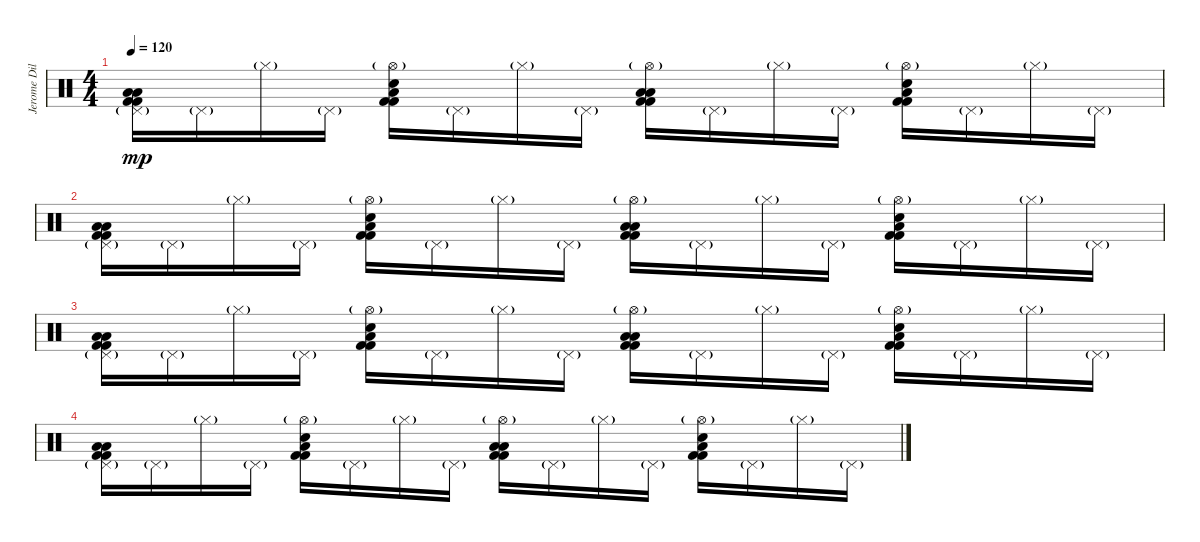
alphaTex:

\track ("Jerome Dillon" "Jerome Dil") {instrument percussion}
\staff {score}
\articulation defaults
\ts (4 4)
\tempo 120
\clef neutral
\ks c
("Pedal Hi-Hat (hit)"{g} "Low Floor Tom (hit)" "Low Tom (hit)" "Kick (hit) 2" "Kick (hit) 2").16{dy mp} "Pedal Hi-Hat (hit)"{g}.16 "Hi-Hat (closed)"{g}.16 "Pedal Hi-Hat (hit)"{g}.16 ("Hi-Hat (open)"{g} "Snare (hit) 2" "Low Tom (hit)" "Kick (hit) 2" "Kick (hit) 2").16 "Pedal Hi-Hat (hit)"{g}.16 "Hi-Hat (closed)"{g}.16 "Pedal Hi-Hat (hit)"{g}.16 ("Hi-Hat (open)"{g} "Low Floor Tom (hit)" "Low Tom (hit)" "Kick (hit) 2" "Kick (hit) 2").16 "Pedal Hi-Hat (hit)"{g}.16 "Hi-Hat (closed)"{g}.16 "Pedal Hi-Hat (hit)"{g}.16 ("Hi-Hat (open)"{g} "Snare (hit) 2" "Low Tom (hit)" "Kick (hit) 2" "Kick (hit) 2").16 "Pedal Hi-Hat (hit)"{g}.16 "Hi-Hat (closed)"{g}.16 "Pedal Hi-Hat (hit)"{g}.16 |
("Pedal Hi-Hat (hit)"{g} "Low Floor Tom (hit)" "Low Tom (hit)" "Kick (hit) 2" "Kick (hit) 2").16 "Pedal Hi-Hat (hit)"{g}.16 "Hi-Hat (closed)"{g}.16 "Pedal Hi-Hat (hit)"{g}.16 ("Hi-Hat (open)"{g} "Snare (hit) 2" "Low Tom (hit)" "Kick (hit) 2" "Kick (hit) 2").16 "Pedal Hi-Hat (hit)"{g}.16 "Hi-Hat (closed)"{g}.16 "Pedal Hi-Hat (hit)"{g}.16 ("Hi-Hat (open)"{g} "Low Floor Tom (hit)" "Low Tom (hit)" "Kick (hit) 2" "Kick (hit) 2").16 "Pedal Hi-Hat (hit)"{g}.16 "Hi-Hat (closed)"{g}.16 "Pedal Hi-Hat (hit)"{g}.16 ("Hi-Hat (open)"{g} "Snare (hit) 2" "Low Tom (hit)" "Kick (hit) 2" "Kick (hit) 2").16 "Pedal Hi-Hat (hit)"{g}.16 "Hi-Hat (closed)"{g}.16 "Pedal Hi-Hat (hit)"{g}.16 |
("Pedal Hi-Hat (hit)"{g} "Low Floor Tom (hit)" "Low Tom (hit)" "Kick (hit) 2" "Kick (hit) 2").16 "Pedal Hi-Hat (hit)"{g}.16 "Hi-Hat (closed)"{g}.16 "Pedal Hi-Hat (hit)"{g}.16 ("Hi-Hat (open)"{g} "Snare (hit) 2" "Low Tom (hit)" "Kick (hit) 2" "Kick (hit) 2").16 "Pedal Hi-Hat (hit)"{g}.16 "Hi-Hat (closed)"{g}.16 "Pedal Hi-Hat (hit)"{g}.16 ("Hi-Hat (open)"{g} "Low Floor Tom (hit)" "Low Tom (hit)" "Kick (hit) 2" "Kick (hit) 2").16 "Pedal Hi-Hat (hit)"{g}.16 "Hi-Hat (closed)"{g}.16 "Pedal Hi-Hat (hit)"{g}.16 ("Hi-Hat (open)"{g} "Snare (hit) 2" "Low Tom (hit)" "Kick (hit) 2" "Kick (hit) 2").16 "Pedal Hi-Hat (hit)"{g}.16 "Hi-Hat (closed)"{g}.16 "Pedal Hi-Hat (hit)"{g}.16 |
("Pedal Hi-Hat (hit)"{g} "Low Floor Tom (hit)" "Low Tom (hit)" "Kick (hit) 2" "Kick (hit) 2").16 "Pedal Hi-Hat (hit)"{g}.16 "Hi-Hat (closed)"{g}.16 "Pedal Hi-Hat (hit)"{g}.16 ("Hi-Hat (open)"{g} "Snare (hit) 2" "Low Tom (hit)" "Kick (hit) 2" "Kick (hit) 2").16 "Pedal Hi-Hat (hit)"{g}.16 "Hi-Hat (closed)"{g}.16 "Pedal Hi-Hat (hit)"{g}.16 ("Hi-Hat (open)"{g} "Low Floor Tom (hit)" "Low Tom (hit)" "Kick (hit) 2" "Kick (hit) 2").16 "Pedal Hi-Hat (hit)"{g}.16 "Hi-Hat (closed)"{g}.16 "Pedal Hi-Hat (hit)"{g}.16 ("Hi-Hat (open)"{g} "Snare (hit) 2" "Low Tom (hit)" "Kick (hit) 2" "Kick (hit) 2").16 "Pedal Hi-Hat (hit)"{g}.16 "Hi-Hat (closed)"{g}.16 "Pedal Hi-Hat (hit)"{g}.16
